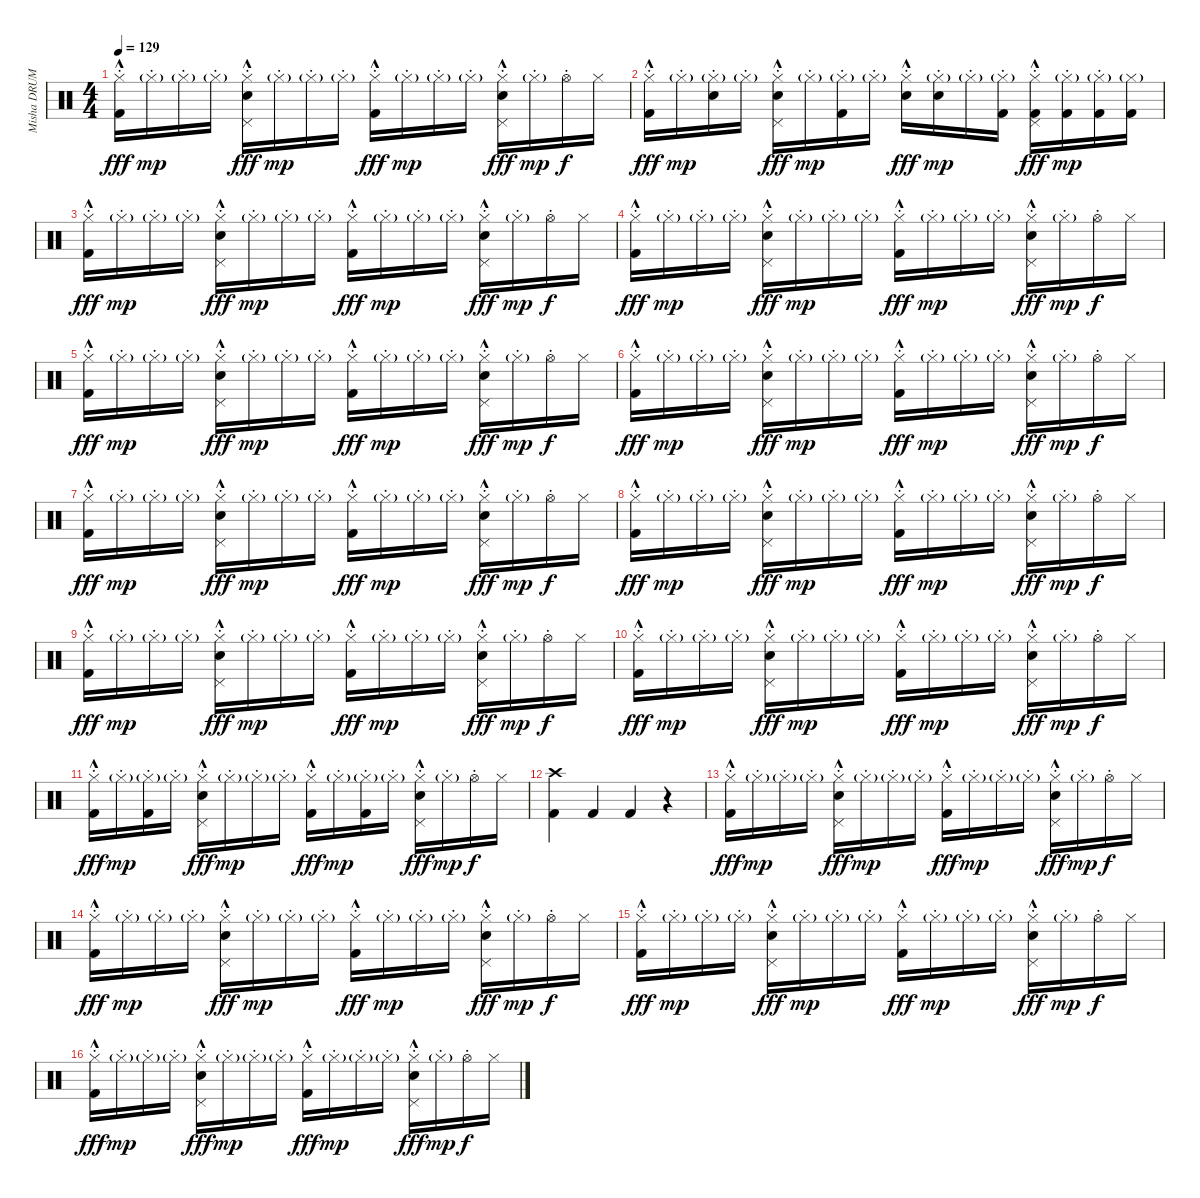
\track ("Misha DRUMS" "Misha DRUM") {instrument percussion}
\staff {score}
\articulation defaults
\ts (4 4)
\tempo 129
\clef neutral
\ks c
("Hi-Hat (closed)"{hac st} "Kick (hit) 2").16{dy fff} "Hi-Hat (closed)"{g st}.16{dy mp} "Hi-Hat (closed)"{g st}.16 "Hi-Hat (closed)"{g st}.16 ("Hi-Hat (closed)"{hac st} "Pedal Hi-Hat (hit)" "Snare (hit) 2").16{dy fff} "Hi-Hat (closed)"{g st}.16{dy mp} "Hi-Hat (closed)"{g st}.16 "Hi-Hat (closed)"{g st}.16 ("Hi-Hat (closed)"{hac st} "Kick (hit) 2").16{dy fff} "Hi-Hat (closed)"{g st}.16{dy mp} "Hi-Hat (closed)"{g st}.16 "Hi-Hat (closed)"{g st}.16 ("Hi-Hat (closed)"{hac st} "Pedal Hi-Hat (hit)" "Snare (hit) 2").16{dy fff} "Hi-Hat (closed)"{g st}.16{dy mp} "Hi-Hat (open)"{st}.16{dy f} "Hi-Hat (closed)".16 |
("Hi-Hat (closed)"{hac st} "Kick (hit) 2").16{dy fff} "Hi-Hat (closed)"{g st}.16{dy mp} ("Hi-Hat (closed)"{g st} "Snare (hit) 2").16 "Hi-Hat (closed)"{g st}.16 ("Hi-Hat (closed)"{hac st} "Pedal Hi-Hat (hit)" "Snare (hit) 2").16{dy fff} "Hi-Hat (closed)"{g st}.16{dy mp} ("Hi-Hat (closed)"{g st} "Kick (hit) 2").16 "Hi-Hat (closed)"{g st}.16 ("Hi-Hat (closed)"{hac st} "Snare (hit) 2").16{dy fff} ("Hi-Hat (closed)"{g st} "Snare (hit) 2").16{dy mp} "Hi-Hat (closed)"{g st}.16 ("Hi-Hat (closed)"{g st} "Kick (hit) 2").16 ("Hi-Hat (closed)"{hac st} "Pedal Hi-Hat (hit)" "Kick (hit) 2").16{dy fff} ("Hi-Hat (closed)"{g st} "Kick (hit) 2").16{dy mp} ("Hi-Hat (closed)"{g st} "Kick (hit) 2").16 ("Hi-Hat (closed)"{g} "Kick (hit) 2").16 |
("Hi-Hat (closed)"{hac st} "Kick (hit) 2").16{dy fff} "Hi-Hat (closed)"{g st}.16{dy mp} "Hi-Hat (closed)"{g st}.16 "Hi-Hat (closed)"{g st}.16 ("Hi-Hat (closed)"{hac st} "Pedal Hi-Hat (hit)" "Snare (hit) 2").16{dy fff} "Hi-Hat (closed)"{g st}.16{dy mp} "Hi-Hat (closed)"{g st}.16 "Hi-Hat (closed)"{g st}.16 ("Hi-Hat (closed)"{hac st} "Kick (hit) 2").16{dy fff} "Hi-Hat (closed)"{g st}.16{dy mp} "Hi-Hat (closed)"{g st}.16 "Hi-Hat (closed)"{g st}.16 ("Hi-Hat (closed)"{hac st} "Pedal Hi-Hat (hit)" "Snare (hit) 2").16{dy fff} "Hi-Hat (closed)"{g st}.16{dy mp} "Hi-Hat (open)"{st}.16{dy f} "Hi-Hat (closed)".16 |
("Hi-Hat (closed)"{hac st} "Kick (hit) 2").16{dy fff} "Hi-Hat (closed)"{g st}.16{dy mp} "Hi-Hat (closed)"{g st}.16 "Hi-Hat (closed)"{g st}.16 ("Hi-Hat (closed)"{hac st} "Pedal Hi-Hat (hit)" "Snare (hit) 2").16{dy fff} "Hi-Hat (closed)"{g st}.16{dy mp} "Hi-Hat (closed)"{g st}.16 "Hi-Hat (closed)"{g st}.16 ("Hi-Hat (closed)"{hac st} "Kick (hit) 2").16{dy fff} "Hi-Hat (closed)"{g st}.16{dy mp} "Hi-Hat (closed)"{g st}.16 "Hi-Hat (closed)"{g st}.16 ("Hi-Hat (closed)"{hac st} "Pedal Hi-Hat (hit)" "Snare (hit) 2").16{dy fff} "Hi-Hat (closed)"{g st}.16{dy mp} "Hi-Hat (open)"{st}.16{dy f} "Hi-Hat (closed)".16 |
("Hi-Hat (closed)"{hac st} "Kick (hit) 2").16{dy fff} "Hi-Hat (closed)"{g st}.16{dy mp} "Hi-Hat (closed)"{g st}.16 "Hi-Hat (closed)"{g st}.16 ("Hi-Hat (closed)"{hac st} "Pedal Hi-Hat (hit)" "Snare (hit) 2").16{dy fff} "Hi-Hat (closed)"{g st}.16{dy mp} "Hi-Hat (closed)"{g st}.16 "Hi-Hat (closed)"{g st}.16 ("Hi-Hat (closed)"{hac st} "Kick (hit) 2").16{dy fff} "Hi-Hat (closed)"{g st}.16{dy mp} "Hi-Hat (closed)"{g st}.16 "Hi-Hat (closed)"{g st}.16 ("Hi-Hat (closed)"{hac st} "Pedal Hi-Hat (hit)" "Snare (hit) 2").16{dy fff} "Hi-Hat (closed)"{g st}.16{dy mp} "Hi-Hat (open)"{st}.16{dy f} "Hi-Hat (closed)".16 |
("Hi-Hat (closed)"{hac st} "Kick (hit) 2").16{dy fff} "Hi-Hat (closed)"{g st}.16{dy mp} "Hi-Hat (closed)"{g st}.16 "Hi-Hat (closed)"{g st}.16 ("Hi-Hat (closed)"{hac st} "Pedal Hi-Hat (hit)" "Snare (hit) 2").16{dy fff} "Hi-Hat (closed)"{g st}.16{dy mp} "Hi-Hat (closed)"{g st}.16 "Hi-Hat (closed)"{g st}.16 ("Hi-Hat (closed)"{hac st} "Kick (hit) 2").16{dy fff} "Hi-Hat (closed)"{g st}.16{dy mp} "Hi-Hat (closed)"{g st}.16 "Hi-Hat (closed)"{g st}.16 ("Hi-Hat (closed)"{hac st} "Pedal Hi-Hat (hit)" "Snare (hit) 2").16{dy fff} "Hi-Hat (closed)"{g st}.16{dy mp} "Hi-Hat (open)"{st}.16{dy f} "Hi-Hat (closed)".16 |
("Hi-Hat (closed)"{hac st} "Kick (hit) 2").16{dy fff} "Hi-Hat (closed)"{g st}.16{dy mp} "Hi-Hat (closed)"{g st}.16 "Hi-Hat (closed)"{g st}.16 ("Hi-Hat (closed)"{hac st} "Pedal Hi-Hat (hit)" "Snare (hit) 2").16{dy fff} "Hi-Hat (closed)"{g st}.16{dy mp} "Hi-Hat (closed)"{g st}.16 "Hi-Hat (closed)"{g st}.16 ("Hi-Hat (closed)"{hac st} "Kick (hit) 2").16{dy fff} "Hi-Hat (closed)"{g st}.16{dy mp} "Hi-Hat (closed)"{g st}.16 "Hi-Hat (closed)"{g st}.16 ("Hi-Hat (closed)"{hac st} "Pedal Hi-Hat (hit)" "Snare (hit) 2").16{dy fff} "Hi-Hat (closed)"{g st}.16{dy mp} "Hi-Hat (open)"{st}.16{dy f} "Hi-Hat (closed)".16 |
("Hi-Hat (closed)"{hac st} "Kick (hit) 2").16{dy fff} "Hi-Hat (closed)"{g st}.16{dy mp} "Hi-Hat (closed)"{g st}.16 "Hi-Hat (closed)"{g st}.16 ("Hi-Hat (closed)"{hac st} "Pedal Hi-Hat (hit)" "Snare (hit) 2").16{dy fff} "Hi-Hat (closed)"{g st}.16{dy mp} "Hi-Hat (closed)"{g st}.16 "Hi-Hat (closed)"{g st}.16 ("Hi-Hat (closed)"{hac st} "Kick (hit) 2").16{dy fff} "Hi-Hat (closed)"{g st}.16{dy mp} "Hi-Hat (closed)"{g st}.16 "Hi-Hat (closed)"{g st}.16 ("Hi-Hat (closed)"{hac st} "Pedal Hi-Hat (hit)" "Snare (hit) 2").16{dy fff} "Hi-Hat (closed)"{g st}.16{dy mp} "Hi-Hat (open)"{st}.16{dy f} "Hi-Hat (closed)".16 |
("Hi-Hat (closed)"{hac st} "Kick (hit) 2").16{dy fff} "Hi-Hat (closed)"{g st}.16{dy mp} "Hi-Hat (closed)"{g st}.16 "Hi-Hat (closed)"{g st}.16 ("Hi-Hat (closed)"{hac st} "Pedal Hi-Hat (hit)" "Snare (hit) 2").16{dy fff} "Hi-Hat (closed)"{g st}.16{dy mp} "Hi-Hat (closed)"{g st}.16 "Hi-Hat (closed)"{g st}.16 ("Hi-Hat (closed)"{hac st} "Kick (hit) 2").16{dy fff} "Hi-Hat (closed)"{g st}.16{dy mp} "Hi-Hat (closed)"{g st}.16 "Hi-Hat (closed)"{g st}.16 ("Hi-Hat (closed)"{hac st} "Pedal Hi-Hat (hit)" "Snare (hit) 2").16{dy fff} "Hi-Hat (closed)"{g st}.16{dy mp} "Hi-Hat (open)"{st}.16{dy f} "Hi-Hat (closed)".16 |
("Hi-Hat (closed)"{hac st} "Kick (hit) 2").16{dy fff} "Hi-Hat (closed)"{g st}.16{dy mp} "Hi-Hat (closed)"{g st}.16 "Hi-Hat (closed)"{g st}.16 ("Hi-Hat (closed)"{hac st} "Pedal Hi-Hat (hit)" "Snare (hit) 2").16{dy fff} "Hi-Hat (closed)"{g st}.16{dy mp} "Hi-Hat (closed)"{g st}.16 "Hi-Hat (closed)"{g st}.16 ("Hi-Hat (closed)"{hac st} "Kick (hit) 2").16{dy fff} "Hi-Hat (closed)"{g st}.16{dy mp} "Hi-Hat (closed)"{g st}.16 "Hi-Hat (closed)"{g st}.16 ("Hi-Hat (closed)"{hac st} "Pedal Hi-Hat (hit)" "Snare (hit) 2").16{dy fff} "Hi-Hat (closed)"{g st}.16{dy mp} "Hi-Hat (open)"{st}.16{dy f} "Hi-Hat (closed)".16 |
("Hi-Hat (closed)"{hac st} "Kick (hit) 2").16{dy fff} "Hi-Hat (closed)"{g st}.16{dy mp} ("Hi-Hat (closed)"{g st} "Kick (hit) 2").16 "Hi-Hat (closed)"{g st}.16 ("Hi-Hat (closed)"{hac st} "Pedal Hi-Hat (hit)" "Snare (hit) 2").16{dy fff} "Hi-Hat (closed)"{g st}.16{dy mp} "Hi-Hat (closed)"{g st}.16 "Hi-Hat (closed)"{g st}.16 ("Hi-Hat (closed)"{hac st} "Kick (hit) 2").16{dy fff} "Hi-Hat (closed)"{g st}.16{dy mp} ("Hi-Hat (closed)"{g st} "Kick (hit) 2").16 "Hi-Hat (closed)"{g st}.16 ("Hi-Hat (closed)"{hac st} "Pedal Hi-Hat (hit)" "Snare (hit) 2").16{dy fff} "Hi-Hat (closed)"{g st}.16{dy mp} "Hi-Hat (open)"{st}.16{dy f} "Hi-Hat (closed)".16 |
("Crash high (hit)" "Kick (hit) 2").4 "Kick (hit) 2".4 "Kick (hit) 2".4 r.4 |
("Hi-Hat (closed)"{hac st} "Kick (hit) 2").16{dy fff} "Hi-Hat (closed)"{g st}.16{dy mp} "Hi-Hat (closed)"{g st}.16 "Hi-Hat (closed)"{g st}.16 ("Hi-Hat (closed)"{hac st} "Pedal Hi-Hat (hit)" "Snare (hit) 2").16{dy fff} "Hi-Hat (closed)"{g st}.16{dy mp} "Hi-Hat (closed)"{g st}.16 "Hi-Hat (closed)"{g st}.16 ("Hi-Hat (closed)"{hac st} "Kick (hit) 2").16{dy fff} "Hi-Hat (closed)"{g st}.16{dy mp} "Hi-Hat (closed)"{g st}.16 "Hi-Hat (closed)"{g st}.16 ("Hi-Hat (closed)"{hac st} "Pedal Hi-Hat (hit)" "Snare (hit) 2").16{dy fff} "Hi-Hat (closed)"{g st}.16{dy mp} "Hi-Hat (open)"{st}.16{dy f} "Hi-Hat (closed)".16 |
("Hi-Hat (closed)"{hac st} "Kick (hit) 2").16{dy fff} "Hi-Hat (closed)"{g st}.16{dy mp} "Hi-Hat (closed)"{g st}.16 "Hi-Hat (closed)"{g st}.16 ("Hi-Hat (closed)"{hac st} "Pedal Hi-Hat (hit)" "Snare (hit) 2").16{dy fff} "Hi-Hat (closed)"{g st}.16{dy mp} "Hi-Hat (closed)"{g st}.16 "Hi-Hat (closed)"{g st}.16 ("Hi-Hat (closed)"{hac st} "Kick (hit) 2").16{dy fff} "Hi-Hat (closed)"{g st}.16{dy mp} "Hi-Hat (closed)"{g st}.16 "Hi-Hat (closed)"{g st}.16 ("Hi-Hat (closed)"{hac st} "Pedal Hi-Hat (hit)" "Snare (hit) 2").16{dy fff} "Hi-Hat (closed)"{g st}.16{dy mp} "Hi-Hat (open)"{st}.16{dy f} "Hi-Hat (closed)".16 |
("Hi-Hat (closed)"{hac st} "Kick (hit) 2").16{dy fff} "Hi-Hat (closed)"{g st}.16{dy mp} "Hi-Hat (closed)"{g st}.16 "Hi-Hat (closed)"{g st}.16 ("Hi-Hat (closed)"{hac st} "Pedal Hi-Hat (hit)" "Snare (hit) 2").16{dy fff} "Hi-Hat (closed)"{g st}.16{dy mp} "Hi-Hat (closed)"{g st}.16 "Hi-Hat (closed)"{g st}.16 ("Hi-Hat (closed)"{hac st} "Kick (hit) 2").16{dy fff} "Hi-Hat (closed)"{g st}.16{dy mp} "Hi-Hat (closed)"{g st}.16 "Hi-Hat (closed)"{g st}.16 ("Hi-Hat (closed)"{hac st} "Pedal Hi-Hat (hit)" "Snare (hit) 2").16{dy fff} "Hi-Hat (closed)"{g st}.16{dy mp} "Hi-Hat (open)"{st}.16{dy f} "Hi-Hat (closed)".16 |
("Hi-Hat (closed)"{hac st} "Kick (hit) 2").16{dy fff} "Hi-Hat (closed)"{g st}.16{dy mp} "Hi-Hat (closed)"{g st}.16 "Hi-Hat (closed)"{g st}.16 ("Hi-Hat (closed)"{hac st} "Pedal Hi-Hat (hit)" "Snare (hit) 2").16{dy fff} "Hi-Hat (closed)"{g st}.16{dy mp} "Hi-Hat (closed)"{g st}.16 "Hi-Hat (closed)"{g st}.16 ("Hi-Hat (closed)"{hac st} "Kick (hit) 2").16{dy fff} "Hi-Hat (closed)"{g st}.16{dy mp} "Hi-Hat (closed)"{g st}.16 "Hi-Hat (closed)"{g st}.16 ("Hi-Hat (closed)"{hac st} "Pedal Hi-Hat (hit)" "Snare (hit) 2").16{dy fff} "Hi-Hat (closed)"{g st}.16{dy mp} "Hi-Hat (open)"{st}.16{dy f} "Hi-Hat (closed)".16
